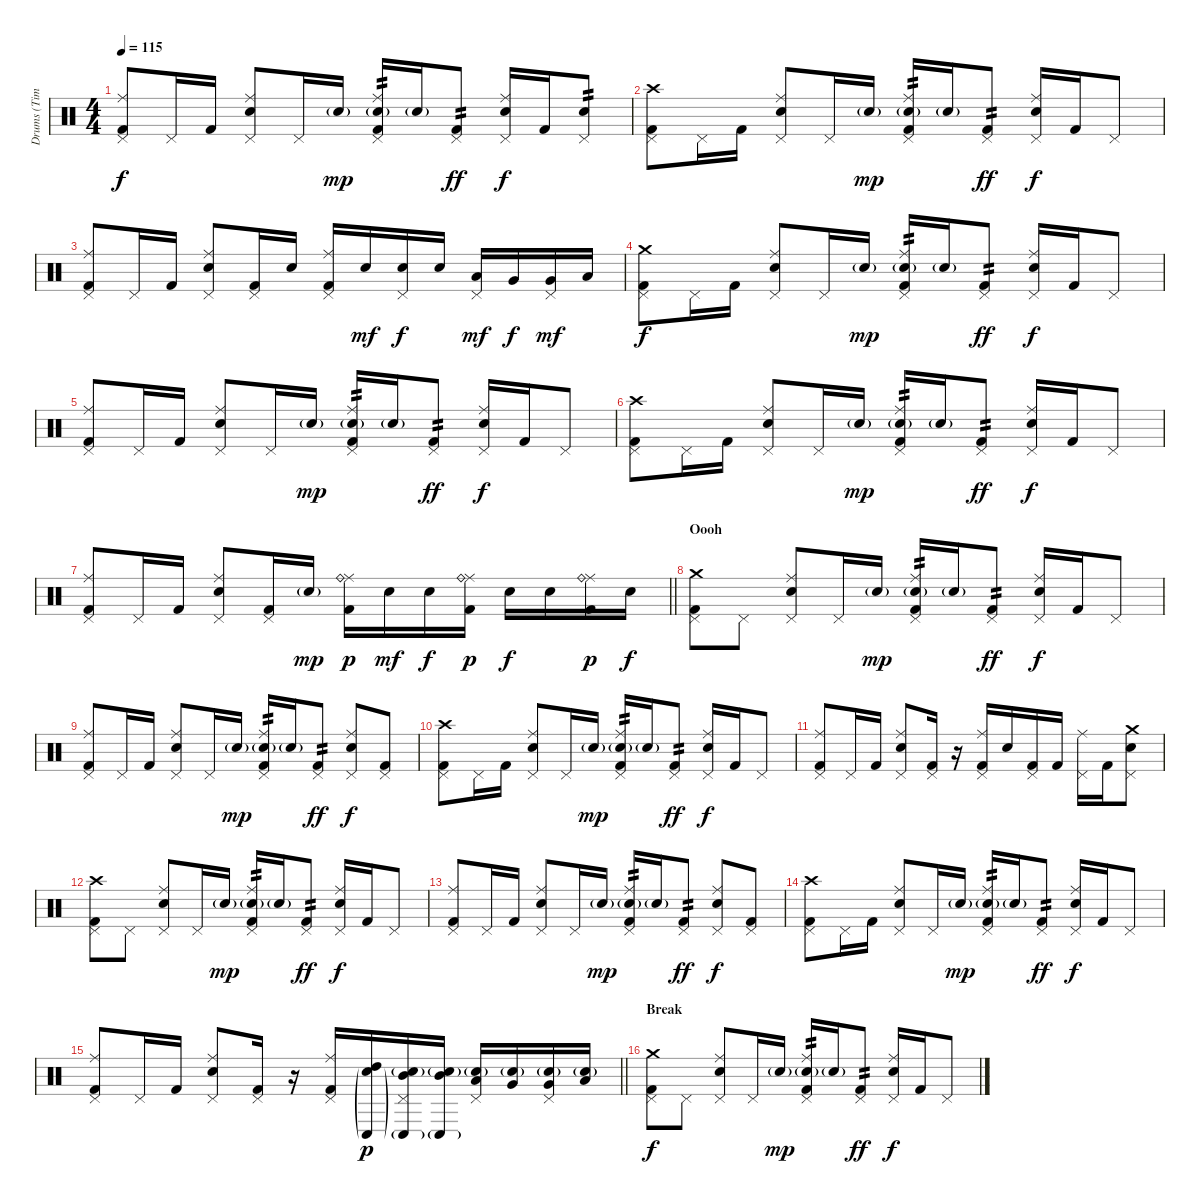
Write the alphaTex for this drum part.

\track ("Drums (Tim Alexander)" "Drums (Tim") {instrument percussion}
\staff {score}
\articulation defaults
\ts (4 4)
\tempo 115
\clef neutral
\ks c
("Pedal Hi-Hat (hit)" "Ride (middle)" "Kick (hit) 2").8{dy f} "Pedal Hi-Hat (hit)".16 "Kick (hit) 2".16 ("Pedal Hi-Hat (hit)" "Ride (middle)" "Electric Snare (hit)").8 "Pedal Hi-Hat (hit)".16 "Electric Snare (hit)"{g}.16{dy mp} ("Pedal Hi-Hat (hit)" "Ride (middle)" "Electric Snare (hit)"{g} "Kick (hit) 2").16{tp 2} "Electric Snare (hit)"{g}.16 ("Pedal Hi-Hat (hit)" "Kick (hit) 2").8{tp 2 dy ff} ("Pedal Hi-Hat (hit)" "Ride (middle)" "Electric Snare (hit)").16{dy f} "Kick (hit) 2".16 ("Pedal Hi-Hat (hit)" "Electric Snare (hit)").8{tp 2} |
("Pedal Hi-Hat (hit)" "Crash high (hit)" "Kick (hit) 2").8 "Pedal Hi-Hat (hit)".16 "Kick (hit) 2".16 ("Pedal Hi-Hat (hit)" "Ride (middle)" "Electric Snare (hit)").8 "Pedal Hi-Hat (hit)".16 "Electric Snare (hit)"{g}.16{dy mp} ("Pedal Hi-Hat (hit)" "Ride (middle)" "Electric Snare (hit)"{g} "Kick (hit) 2").16{tp 2} "Electric Snare (hit)"{g}.16 ("Pedal Hi-Hat (hit)" "Kick (hit) 2").8{tp 2 dy ff} ("Pedal Hi-Hat (hit)" "Ride (middle)" "Electric Snare (hit)").16{dy f} "Kick (hit) 2".16 "Pedal Hi-Hat (hit)".8 |
("Pedal Hi-Hat (hit)" "Ride (middle)" "Kick (hit) 2").8 "Pedal Hi-Hat (hit)".16 "Kick (hit) 2".16 ("Pedal Hi-Hat (hit)" "Ride (middle)" "Electric Snare (hit)").8 ("Pedal Hi-Hat (hit)" "Kick (hit) 2").16 "Electric Snare (hit)".16 ("Pedal Hi-Hat (hit)" "Ride (middle)" "Kick (hit) 2").16 "Electric Snare (hit)".16{dy mf} ("Pedal Hi-Hat (hit)" "Electric Snare (hit)").16{dy f} "Electric Snare (hit)".16 ("Pedal Hi-Hat (hit)" "Low Tom (hit)").16{dy mf} "Very Low Tom (hit)".16{dy f} ("Pedal Hi-Hat (hit)" "Very Low Tom (hit)").16{dy mf} "Low Floor Tom (hit)".16 |
("Pedal Hi-Hat (hit)" "Crash medium (hit)" "Kick (hit) 2").8{dy f} "Pedal Hi-Hat (hit)".16 "Kick (hit) 2".16 ("Pedal Hi-Hat (hit)" "Ride (middle)" "Electric Snare (hit)").8 "Pedal Hi-Hat (hit)".16 "Electric Snare (hit)"{g}.16{dy mp} ("Pedal Hi-Hat (hit)" "Ride (middle)" "Electric Snare (hit)"{g} "Kick (hit) 2").16{tp 2} "Electric Snare (hit)"{g}.16 ("Pedal Hi-Hat (hit)" "Kick (hit) 2").8{tp 2 dy ff} ("Pedal Hi-Hat (hit)" "Ride (middle)" "Electric Snare (hit)").16{dy f} "Kick (hit) 2".16 "Pedal Hi-Hat (hit)".8 |
("Pedal Hi-Hat (hit)" "Ride (middle)" "Kick (hit) 2").8 "Pedal Hi-Hat (hit)".16 "Kick (hit) 2".16 ("Pedal Hi-Hat (hit)" "Ride (middle)" "Electric Snare (hit)").8 "Pedal Hi-Hat (hit)".16 "Electric Snare (hit)"{g}.16{dy mp} ("Pedal Hi-Hat (hit)" "Ride (middle)" "Electric Snare (hit)"{g} "Kick (hit) 2").16{tp 2} "Electric Snare (hit)"{g}.16 ("Pedal Hi-Hat (hit)" "Kick (hit) 2").8{tp 2 dy ff} ("Pedal Hi-Hat (hit)" "Ride (middle)" "Electric Snare (hit)").16{dy f} "Kick (hit) 2".16 "Pedal Hi-Hat (hit)".8 |
("Pedal Hi-Hat (hit)" "Crash high (hit)" "Kick (hit) 2").8 "Pedal Hi-Hat (hit)".16 "Kick (hit) 2".16 ("Pedal Hi-Hat (hit)" "Ride (middle)" "Electric Snare (hit)").8 "Pedal Hi-Hat (hit)".16 "Electric Snare (hit)"{g}.16{dy mp} ("Pedal Hi-Hat (hit)" "Ride (middle)" "Electric Snare (hit)"{g} "Kick (hit) 2").16{tp 2} "Electric Snare (hit)"{g}.16 ("Pedal Hi-Hat (hit)" "Kick (hit) 2").8{tp 2 dy ff} ("Pedal Hi-Hat (hit)" "Ride (middle)" "Electric Snare (hit)").16{dy f} "Kick (hit) 2".16 "Pedal Hi-Hat (hit)".8 |
\barLineRight lightlight
("Pedal Hi-Hat (hit)" "Ride (middle)" "Kick (hit) 2").8 "Pedal Hi-Hat (hit)".16 "Kick (hit) 2".16 ("Pedal Hi-Hat (hit)" "Ride (middle)" "Electric Snare (hit)").8 ("Pedal Hi-Hat (hit)" "Kick (hit) 2").16 "Electric Snare (hit)"{g}.16{dy mp} ("Ride (middle)" "Ride (bell)" "Kick (hit) 2").16{dy p} "Electric Snare (hit)".16{dy mf} "Electric Snare (hit)".16{dy f} ("Ride (middle)" "Ride (bell)" "Kick (hit) 2").16{dy p} "Electric Snare (hit)".16{dy f} "Electric Snare (hit)".16 ("Ride (middle)" "Ride (bell)" "Kick (hit) 2").16{dy p} "Electric Snare (hit)".16{dy f} |
\section ("" "Oooh")
("Pedal Hi-Hat (hit)" "Crash medium (hit)" "Kick (hit) 2").8 "Pedal Hi-Hat (hit)".8 ("Pedal Hi-Hat (hit)" "Ride (middle)" "Electric Snare (hit)").8 "Pedal Hi-Hat (hit)".16 "Electric Snare (hit)"{g}.16{dy mp} ("Pedal Hi-Hat (hit)" "Ride (middle)" "Electric Snare (hit)"{g} "Kick (hit) 2").16{tp 2} "Electric Snare (hit)"{g}.16 ("Pedal Hi-Hat (hit)" "Kick (hit) 2").8{tp 2 dy ff} ("Pedal Hi-Hat (hit)" "Ride (middle)" "Electric Snare (hit)").16{dy f} "Kick (hit) 2".16 "Pedal Hi-Hat (hit)".8 |
("Pedal Hi-Hat (hit)" "Ride (middle)" "Kick (hit) 2").8 "Pedal Hi-Hat (hit)".16 "Kick (hit) 2".16 ("Pedal Hi-Hat (hit)" "Ride (middle)" "Electric Snare (hit)").8 "Pedal Hi-Hat (hit)".16 "Electric Snare (hit)"{g}.16{dy mp} ("Pedal Hi-Hat (hit)" "Ride (middle)" "Electric Snare (hit)"{g} "Kick (hit) 2").16{tp 2} "Electric Snare (hit)"{g}.16 ("Pedal Hi-Hat (hit)" "Kick (hit) 2").8{tp 2 dy ff} ("Pedal Hi-Hat (hit)" "Ride (middle)" "Electric Snare (hit)").8{dy f} ("Pedal Hi-Hat (hit)" "Kick (hit) 2").8 |
("Pedal Hi-Hat (hit)" "Crash high (hit)" "Kick (hit) 2").8 "Pedal Hi-Hat (hit)".16 "Kick (hit) 2".16 ("Pedal Hi-Hat (hit)" "Ride (middle)" "Electric Snare (hit)").8 "Pedal Hi-Hat (hit)".16 "Electric Snare (hit)"{g}.16{dy mp} ("Pedal Hi-Hat (hit)" "Ride (middle)" "Electric Snare (hit)"{g} "Kick (hit) 2").16{tp 2} "Electric Snare (hit)"{g}.16 ("Pedal Hi-Hat (hit)" "Kick (hit) 2").8{tp 2 dy ff} ("Pedal Hi-Hat (hit)" "Ride (middle)" "Electric Snare (hit)").16{dy f} "Kick (hit) 2".16 "Pedal Hi-Hat (hit)".8 |
("Pedal Hi-Hat (hit)" "Ride (middle)" "Kick (hit) 2").8 "Pedal Hi-Hat (hit)".16 "Kick (hit) 2".16 ("Pedal Hi-Hat (hit)" "Ride (middle)" "Electric Snare (hit)").8 ("Pedal Hi-Hat (hit)" "Kick (hit) 2").16 r.16 ("Pedal Hi-Hat (hit)" "Ride (middle)" "Kick (hit) 2").16 "Electric Snare (hit)".16 ("Pedal Hi-Hat (hit)" "Kick (hit) 2").16 "Kick (hit) 2".16 ("Pedal Hi-Hat (hit)" "Ride (middle)").16 "Kick (hit) 2".16 ("Pedal Hi-Hat (hit)" "Crash medium (hit)" "Electric Snare (hit)").8 |
("Pedal Hi-Hat (hit)" "Crash high (hit)" "Kick (hit) 2").8 "Pedal Hi-Hat (hit)".8 ("Pedal Hi-Hat (hit)" "Ride (middle)" "Electric Snare (hit)").8 "Pedal Hi-Hat (hit)".16 "Electric Snare (hit)"{g}.16{dy mp} ("Pedal Hi-Hat (hit)" "Ride (middle)" "Electric Snare (hit)"{g} "Kick (hit) 2").16{tp 2} "Electric Snare (hit)"{g}.16 ("Pedal Hi-Hat (hit)" "Kick (hit) 2").8{tp 2 dy ff} ("Pedal Hi-Hat (hit)" "Ride (middle)" "Electric Snare (hit)").16{dy f} "Kick (hit) 2".16 "Pedal Hi-Hat (hit)".8 |
("Pedal Hi-Hat (hit)" "Ride (middle)" "Kick (hit) 2").8 "Pedal Hi-Hat (hit)".16 "Kick (hit) 2".16 ("Pedal Hi-Hat (hit)" "Ride (middle)" "Electric Snare (hit)").8 "Pedal Hi-Hat (hit)".16 "Electric Snare (hit)"{g}.16{dy mp} ("Pedal Hi-Hat (hit)" "Ride (middle)" "Electric Snare (hit)"{g} "Kick (hit) 2").16{tp 2} "Electric Snare (hit)"{g}.16 ("Pedal Hi-Hat (hit)" "Kick (hit) 2").8{tp 2 dy ff} ("Pedal Hi-Hat (hit)" "Ride (middle)" "Electric Snare (hit)").8{dy f} ("Pedal Hi-Hat (hit)" "Kick (hit) 2").8 |
("Pedal Hi-Hat (hit)" "Crash high (hit)" "Kick (hit) 2").8 "Pedal Hi-Hat (hit)".16 "Kick (hit) 2".16 ("Pedal Hi-Hat (hit)" "Ride (middle)" "Electric Snare (hit)").8 "Pedal Hi-Hat (hit)".16 "Electric Snare (hit)"{g}.16{dy mp} ("Pedal Hi-Hat (hit)" "Ride (middle)" "Electric Snare (hit)"{g} "Kick (hit) 2").16{tp 2} "Electric Snare (hit)"{g}.16 ("Pedal Hi-Hat (hit)" "Kick (hit) 2").8{tp 2 dy ff} ("Pedal Hi-Hat (hit)" "Ride (middle)" "Electric Snare (hit)").16{dy f} "Kick (hit) 2".16 "Pedal Hi-Hat (hit)".8 |
\barLineRight lightlight
("Pedal Hi-Hat (hit)" "Ride (middle)" "Kick (hit) 2").8 "Pedal Hi-Hat (hit)".16 "Kick (hit) 2".16 ("Pedal Hi-Hat (hit)" "Ride (middle)" "Electric Snare (hit)").8 ("Pedal Hi-Hat (hit)" "Kick (hit) 2").16 r.16 ("Pedal Hi-Hat (hit)" "Ride (middle)" "Kick (hit) 2").16 ("Conga low (hit)"{g} "High Tom (hit)" "Electric Snare (hit)"{g}).16{dy p} ("Pedal Hi-Hat (hit)" "Conga low (hit)"{g} "Mid Tom (hit)" "Electric Snare (hit)"{g}).16 ("Conga low (hit)"{g} "Mid Tom (hit)" "Electric Snare (hit)"{g}).16 ("Pedal Hi-Hat (hit)" "Low Tom (hit)" "Electric Snare (hit)"{g}).16 ("Very Low Tom (hit)" "Electric Snare (hit)"{g}).16 ("Pedal Hi-Hat (hit)" "Very Low Tom (hit)" "Electric Snare (hit)"{g}).16 ("Low Floor Tom (hit)" "Electric Snare (hit)"{g}).16 |
\section ("" "Break")
("Pedal Hi-Hat (hit)" "Crash medium (hit)" "Kick (hit) 2").8{dy f} "Pedal Hi-Hat (hit)".8 ("Pedal Hi-Hat (hit)" "Ride (middle)" "Electric Snare (hit)").8 "Pedal Hi-Hat (hit)".16 "Electric Snare (hit)"{g}.16{dy mp} ("Pedal Hi-Hat (hit)" "Ride (middle)" "Electric Snare (hit)"{g} "Kick (hit) 2").16{tp 2} "Electric Snare (hit)"{g}.16 ("Pedal Hi-Hat (hit)" "Kick (hit) 2").8{tp 2 dy ff} ("Pedal Hi-Hat (hit)" "Ride (middle)" "Electric Snare (hit)").16{dy f} "Kick (hit) 2".16 "Pedal Hi-Hat (hit)".8
